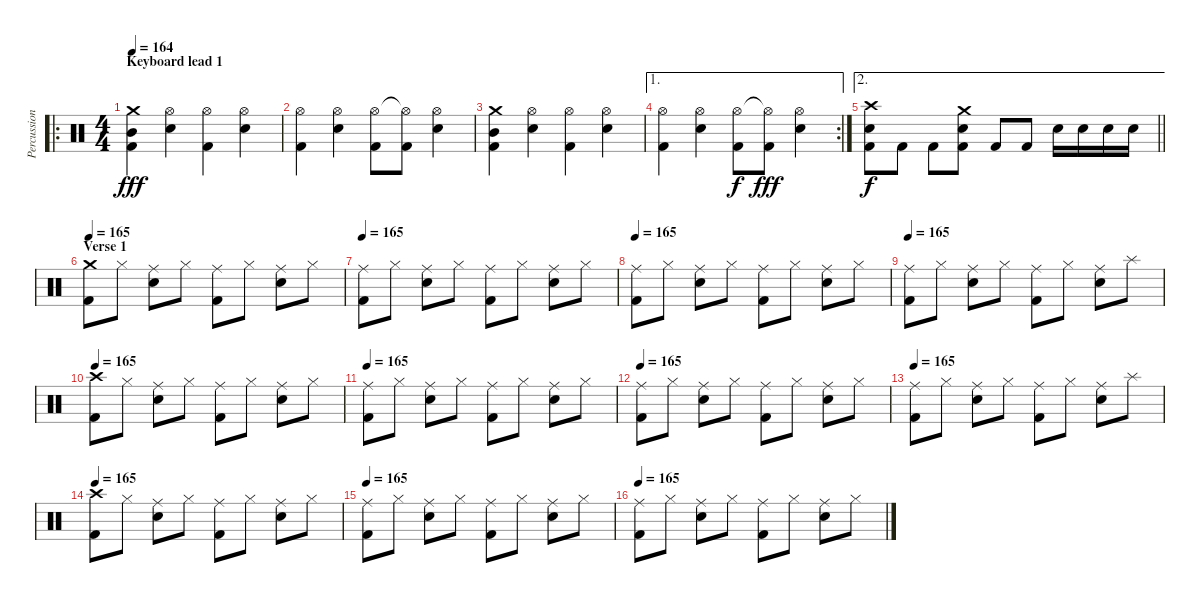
\track ("Percussion" "Percussion") {instrument percussion}
\staff {score}
\articulation defaults
\ro
\ts (4 4)
\section ("" "Keyboard lead 1")
\tempo 164
\clef neutral
\ks c
("Crash medium (hit)" "Mid Tom (hit)" "Kick (hit) 2").4{dy fff} ("Hi-Hat (open)" "Electric Snare (hit)").4 ("Hi-Hat (open)" "Kick (hit) 2").4 ("Hi-Hat (open)" "Electric Snare (hit)").4 |
("Hi-Hat (open)" "Kick (hit) 2").4 ("Hi-Hat (open)" "Electric Snare (hit)").4 ("Hi-Hat (open)" "Kick (hit) 2").8 ("Hi-Hat (open)"{t} "Kick (hit) 2").8 ("Hi-Hat (open)" "Electric Snare (hit)").4 |
("Crash medium (hit)" "Mid Tom (hit)" "Kick (hit) 2").4 ("Hi-Hat (open)" "Electric Snare (hit)").4 ("Hi-Hat (open)" "Kick (hit) 2").4 ("Hi-Hat (open)" "Electric Snare (hit)").4 |
\ae 1
\rc 2
("Hi-Hat (open)" "Kick (hit) 2").4 ("Hi-Hat (open)" "Electric Snare (hit)").4 ("Hi-Hat (open)" "Kick (hit) 2").8{dy f} ("Hi-Hat (open)"{t} "Kick (hit) 2").8{dy fff} ("Hi-Hat (open)" "Electric Snare (hit)").4 |
\ae 2
\barLineRight lightlight
("Crash high (hit)" "Electric Snare (hit)" "Kick (hit) 2").8{dy f} "Kick (hit) 2".8 "Kick (hit) 2".8 ("Crash medium (hit)" "Electric Snare (hit)" "Kick (hit) 2").8 "Kick (hit) 2".8 "Kick (hit) 2".8 "Electric Snare (hit)".16 "Electric Snare (hit)".16 "Electric Snare (hit)".16 "Electric Snare (hit)".16 |
\section ("" "Verse 1")
\tempo 165
("Crash medium (hit)" "Kick (hit) 2").8 "Hi-Hat (closed)".8 ("Ride (middle)" "Electric Snare (hit)").8 "Hi-Hat (closed)".8 ("Ride (middle)" "Kick (hit) 2").8 "Hi-Hat (closed)".8 ("Ride (middle)" "Electric Snare (hit)").8 "Hi-Hat (closed)".8 |
\tempo 165
("Ride (middle)" "Kick (hit) 2").8 "Hi-Hat (closed)".8 ("Ride (middle)" "Electric Snare (hit)").8 "Hi-Hat (closed)".8 ("Ride (middle)" "Kick (hit) 2").8 "Hi-Hat (closed)".8 ("Ride (middle)" "Electric Snare (hit)").8 "Hi-Hat (closed)".8 |
\tempo 165
("Ride (middle)" "Kick (hit) 2").8 "Hi-Hat (closed)".8 ("Ride (middle)" "Electric Snare (hit)").8 "Hi-Hat (closed)".8 ("Ride (middle)" "Kick (hit) 2").8 "Hi-Hat (closed)".8 ("Ride (middle)" "Electric Snare (hit)").8 "Hi-Hat (closed)".8 |
\tempo 165
("Ride (middle)" "Kick (hit) 2").8 "Hi-Hat (closed)".8 ("Ride (middle)" "Electric Snare (hit)").8 "Hi-Hat (closed)".8 ("Ride (middle)" "Kick (hit) 2").8 "Hi-Hat (closed)".8 ("Ride (middle)" "Electric Snare (hit)").8 "Splash (hit)".8 |
\tempo 165
("Crash high (hit)" "Kick (hit) 2").8 "Hi-Hat (closed)".8 ("Ride (middle)" "Electric Snare (hit)").8 "Hi-Hat (closed)".8 ("Ride (middle)" "Kick (hit) 2").8 "Hi-Hat (closed)".8 ("Ride (middle)" "Electric Snare (hit)").8 "Hi-Hat (closed)".8 |
\tempo 165
("Ride (middle)" "Kick (hit) 2").8 "Hi-Hat (closed)".8 ("Ride (middle)" "Electric Snare (hit)").8 "Hi-Hat (closed)".8 ("Ride (middle)" "Kick (hit) 2").8 "Hi-Hat (closed)".8 ("Ride (middle)" "Electric Snare (hit)").8 "Hi-Hat (closed)".8 |
\tempo 165
("Ride (middle)" "Kick (hit) 2").8 "Hi-Hat (closed)".8 ("Ride (middle)" "Electric Snare (hit)").8 "Hi-Hat (closed)".8 ("Ride (middle)" "Kick (hit) 2").8 "Hi-Hat (closed)".8 ("Ride (middle)" "Electric Snare (hit)").8 "Hi-Hat (closed)".8 |
\tempo 165
("Ride (middle)" "Kick (hit) 2").8 "Hi-Hat (closed)".8 ("Ride (middle)" "Electric Snare (hit)").8 "Hi-Hat (closed)".8 ("Ride (middle)" "Kick (hit) 2").8 "Hi-Hat (closed)".8 ("Ride (middle)" "Electric Snare (hit)").8 "Splash (hit)".8 |
\tempo 165
("Crash high (hit)" "Kick (hit) 2").8 "Hi-Hat (closed)".8 ("Ride (middle)" "Electric Snare (hit)").8 "Hi-Hat (closed)".8 ("Ride (middle)" "Kick (hit) 2").8 "Hi-Hat (closed)".8 ("Ride (middle)" "Electric Snare (hit)").8 "Hi-Hat (closed)".8 |
\tempo 165
("Ride (middle)" "Kick (hit) 2").8 "Hi-Hat (closed)".8 ("Ride (middle)" "Electric Snare (hit)").8 "Hi-Hat (closed)".8 ("Ride (middle)" "Kick (hit) 2").8 "Hi-Hat (closed)".8 ("Ride (middle)" "Electric Snare (hit)").8 "Hi-Hat (closed)".8 |
\tempo 165
("Ride (middle)" "Kick (hit) 2").8 "Hi-Hat (closed)".8 ("Ride (middle)" "Electric Snare (hit)").8 "Hi-Hat (closed)".8 ("Ride (middle)" "Kick (hit) 2").8 "Hi-Hat (closed)".8 ("Ride (middle)" "Electric Snare (hit)").8 "Hi-Hat (closed)".8
